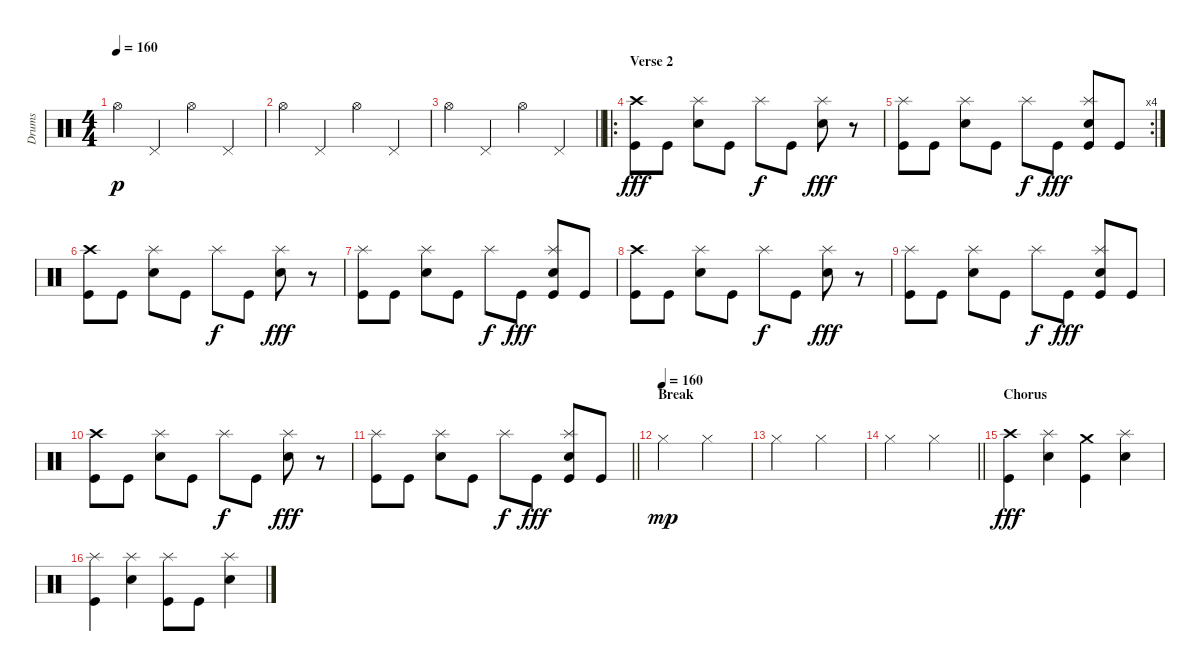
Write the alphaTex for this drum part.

\track ("Drums" "Drums") {instrument percussion}
\staff {score}
\articulation defaults
\ts (4 4)
\tempo 160
\clef neutral
\ks c "Hi-Hat (open)".4{dy p} "Pedal Hi-Hat (hit)".4 "Hi-Hat (open)".4 "Pedal Hi-Hat (hit)".4
|
"Hi-Hat (open)".4 "Pedal Hi-Hat (hit)".4 "Hi-Hat (open)".4 "Pedal Hi-Hat (hit)".4 |
\barLineRight lightlight "Hi-Hat (open)".4 "Pedal Hi-Hat (hit)".4 "Hi-Hat (open)".4 "Pedal Hi-Hat (hit)".4
|
\ro
\section ("" "Verse 2")
("Crash high (hit)" "Kick (hit)").8{dy fff} "Kick (hit)".8 ("Splash (hit)" "Electric Snare (hit)").8 "Kick (hit)".8 "Splash (hit)".8{dy f} "Kick (hit)".8 ("Splash (hit)" "Electric Snare (hit)").8{dy fff} r.8 |
\rc 4
("Splash (hit)" "Kick (hit)").8 "Kick (hit)".8 ("Splash (hit)" "Electric Snare (hit)").8 "Kick (hit)".8 "Splash (hit)".8{dy f} "Kick (hit)".8{dy fff} ("Splash (hit)" "Electric Snare (hit)" "Kick (hit)").8 "Kick (hit)".8 |
("Crash high (hit)" "Kick (hit)").8 "Kick (hit)".8 ("Splash (hit)" "Electric Snare (hit)").8 "Kick (hit)".8 "Splash (hit)".8{dy f} "Kick (hit)".8 ("Splash (hit)" "Electric Snare (hit)").8{dy fff} r.8 |
("Splash (hit)" "Kick (hit)").8 "Kick (hit)".8 ("Splash (hit)" "Electric Snare (hit)").8 "Kick (hit)".8 "Splash (hit)".8{dy f} "Kick (hit)".8{dy fff} ("Splash (hit)" "Electric Snare (hit)" "Kick (hit)").8 "Kick (hit)".8 |
("Crash high (hit)" "Kick (hit)").8 "Kick (hit)".8 ("Splash (hit)" "Electric Snare (hit)").8 "Kick (hit)".8 "Splash (hit)".8{dy f} "Kick (hit)".8 ("Splash (hit)" "Electric Snare (hit)").8{dy fff} r.8 |
("Splash (hit)" "Kick (hit)").8 "Kick (hit)".8 ("Splash (hit)" "Electric Snare (hit)").8 "Kick (hit)".8 "Splash (hit)".8{dy f} "Kick (hit)".8{dy fff} ("Splash (hit)" "Electric Snare (hit)" "Kick (hit)").8 "Kick (hit)".8 |
("Crash high (hit)" "Kick (hit)").8 "Kick (hit)".8 ("Splash (hit)" "Electric Snare (hit)").8 "Kick (hit)".8 "Splash (hit)".8{dy f} "Kick (hit)".8 ("Splash (hit)" "Electric Snare (hit)").8{dy fff} r.8 |
\barLineRight lightlight
("Splash (hit)" "Kick (hit)").8 "Kick (hit)".8 ("Splash (hit)" "Electric Snare (hit)").8 "Kick (hit)".8 "Splash (hit)".8{dy f} "Kick (hit)".8{dy fff} ("Splash (hit)" "Electric Snare (hit)" "Kick (hit)").8 "Kick (hit)".8 |
\section ("" "Break")
\tempo (160)
"Hi-Hat (closed)".2{dy mp} "Hi-Hat (closed)".2 |
"Hi-Hat (closed)".2 "Hi-Hat (closed)".2 |
\barLineRight lightlight "Hi-Hat (closed)".2 "Hi-Hat (closed)".2
|
\section ("" "Chorus")
("Crash high (hit)" "Kick (hit)").4{dy fff} ("Splash (hit)" "Electric Snare (hit)").4 ("Crash medium (hit)" "Kick (hit)").4 ("Splash (hit)" "Electric Snare (hit)").4 |
("Splash (hit)" "Kick (hit)").4 ("Splash (hit)" "Electric Snare (hit)").4 ("Splash (hit)" "Kick (hit)").8 "Kick (hit)".8 ("Splash (hit)" "Electric Snare (hit)").4
